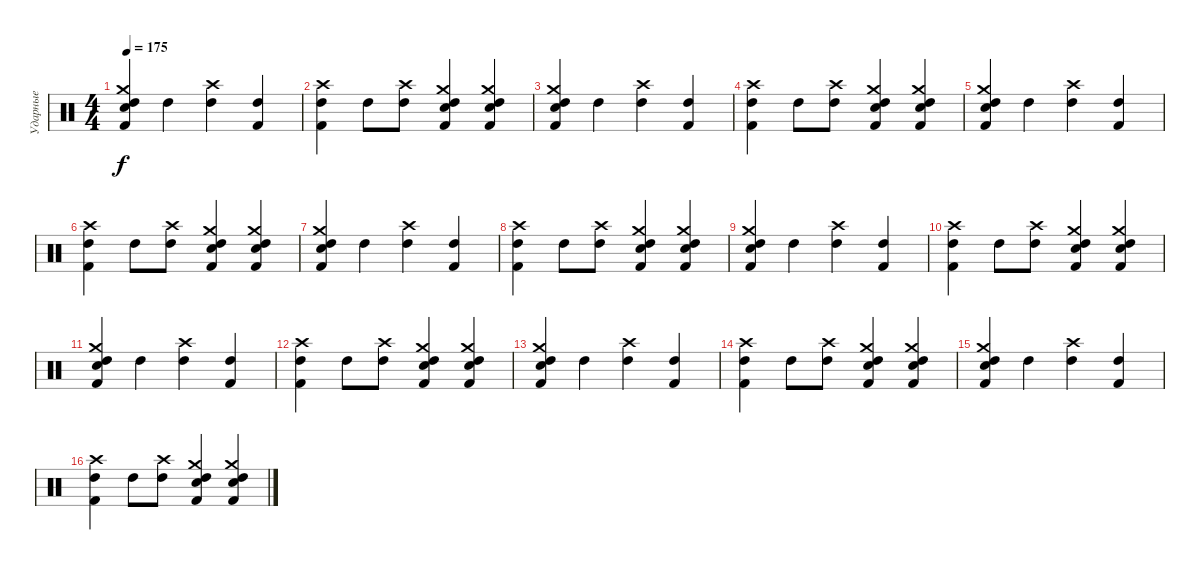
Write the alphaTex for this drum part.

\track ("Ударные" "Ударные") {instrument percussion}
\staff {score}
\articulation defaults
\ts (4 4)
\tempo 175
\clef neutral
\ks c
("High Tom (hit)" "Crash medium (hit)" "Snare (hit) 2" "Kick (hit) 2").4{dy f} "High Tom (hit)".4 ("Crash high (hit)" "High Tom (hit)").4 ("Kick (hit) 2" "High Tom (hit)").4 |
("Crash high (hit)" "Kick (hit) 2" "High Tom (hit)").4 "High Tom (hit)".8 ("Crash high (hit)" "High Tom (hit)").8 ("High Tom (hit)" "Crash medium (hit)" "Snare (hit) 2" "Kick (hit) 2").4 ("High Tom (hit)" "Crash medium (hit)" "Snare (hit) 2" "Kick (hit) 2").4 |
("High Tom (hit)" "Crash medium (hit)" "Snare (hit) 2" "Kick (hit) 2").4 "High Tom (hit)".4 ("Crash high (hit)" "High Tom (hit)").4 ("Kick (hit) 2" "High Tom (hit)").4 |
("Crash high (hit)" "Kick (hit) 2" "High Tom (hit)").4 "High Tom (hit)".8 ("Crash high (hit)" "High Tom (hit)").8 ("High Tom (hit)" "Crash medium (hit)" "Snare (hit) 2" "Kick (hit) 2").4 ("High Tom (hit)" "Crash medium (hit)" "Snare (hit) 2" "Kick (hit) 2").4 |
("High Tom (hit)" "Crash medium (hit)" "Snare (hit) 2" "Kick (hit) 2").4 "High Tom (hit)".4 ("Crash high (hit)" "High Tom (hit)").4 ("Kick (hit) 2" "High Tom (hit)").4 |
("Crash high (hit)" "Kick (hit) 2" "High Tom (hit)").4 "High Tom (hit)".8 ("Crash high (hit)" "High Tom (hit)").8 ("High Tom (hit)" "Crash medium (hit)" "Snare (hit) 2" "Kick (hit) 2").4 ("High Tom (hit)" "Crash medium (hit)" "Snare (hit) 2" "Kick (hit) 2").4 |
("High Tom (hit)" "Crash medium (hit)" "Snare (hit) 2" "Kick (hit) 2").4 "High Tom (hit)".4 ("Crash high (hit)" "High Tom (hit)").4 ("Kick (hit) 2" "High Tom (hit)").4 |
("Crash high (hit)" "Kick (hit) 2" "High Tom (hit)").4 "High Tom (hit)".8 ("Crash high (hit)" "High Tom (hit)").8 ("High Tom (hit)" "Crash medium (hit)" "Snare (hit) 2" "Kick (hit) 2").4 ("High Tom (hit)" "Crash medium (hit)" "Snare (hit) 2" "Kick (hit) 2").4 |
("High Tom (hit)" "Crash medium (hit)" "Snare (hit) 2" "Kick (hit) 2").4 "High Tom (hit)".4 ("Crash high (hit)" "High Tom (hit)").4 ("Kick (hit) 2" "High Tom (hit)").4 |
("Crash high (hit)" "Kick (hit) 2" "High Tom (hit)").4 "High Tom (hit)".8 ("Crash high (hit)" "High Tom (hit)").8 ("High Tom (hit)" "Crash medium (hit)" "Snare (hit) 2" "Kick (hit) 2").4 ("High Tom (hit)" "Crash medium (hit)" "Snare (hit) 2" "Kick (hit) 2").4 |
("High Tom (hit)" "Crash medium (hit)" "Snare (hit) 2" "Kick (hit) 2").4 "High Tom (hit)".4 ("Crash high (hit)" "High Tom (hit)").4 ("Kick (hit) 2" "High Tom (hit)").4 |
("Crash high (hit)" "Kick (hit) 2" "High Tom (hit)").4 "High Tom (hit)".8 ("Crash high (hit)" "High Tom (hit)").8 ("High Tom (hit)" "Crash medium (hit)" "Snare (hit) 2" "Kick (hit) 2").4 ("High Tom (hit)" "Crash medium (hit)" "Snare (hit) 2" "Kick (hit) 2").4 |
("High Tom (hit)" "Crash medium (hit)" "Snare (hit) 2" "Kick (hit) 2").4 "High Tom (hit)".4 ("Crash high (hit)" "High Tom (hit)").4 ("Kick (hit) 2" "High Tom (hit)").4 |
("Crash high (hit)" "Kick (hit) 2" "High Tom (hit)").4 "High Tom (hit)".8 ("Crash high (hit)" "High Tom (hit)").8 ("High Tom (hit)" "Crash medium (hit)" "Snare (hit) 2" "Kick (hit) 2").4 ("High Tom (hit)" "Crash medium (hit)" "Snare (hit) 2" "Kick (hit) 2").4 |
("High Tom (hit)" "Crash medium (hit)" "Snare (hit) 2" "Kick (hit) 2").4 "High Tom (hit)".4 ("Crash high (hit)" "High Tom (hit)").4 ("Kick (hit) 2" "High Tom (hit)").4 |
("Crash high (hit)" "Kick (hit) 2" "High Tom (hit)").4 "High Tom (hit)".8 ("Crash high (hit)" "High Tom (hit)").8 ("High Tom (hit)" "Crash medium (hit)" "Snare (hit) 2" "Kick (hit) 2").4 ("High Tom (hit)" "Crash medium (hit)" "Snare (hit) 2" "Kick (hit) 2").4
